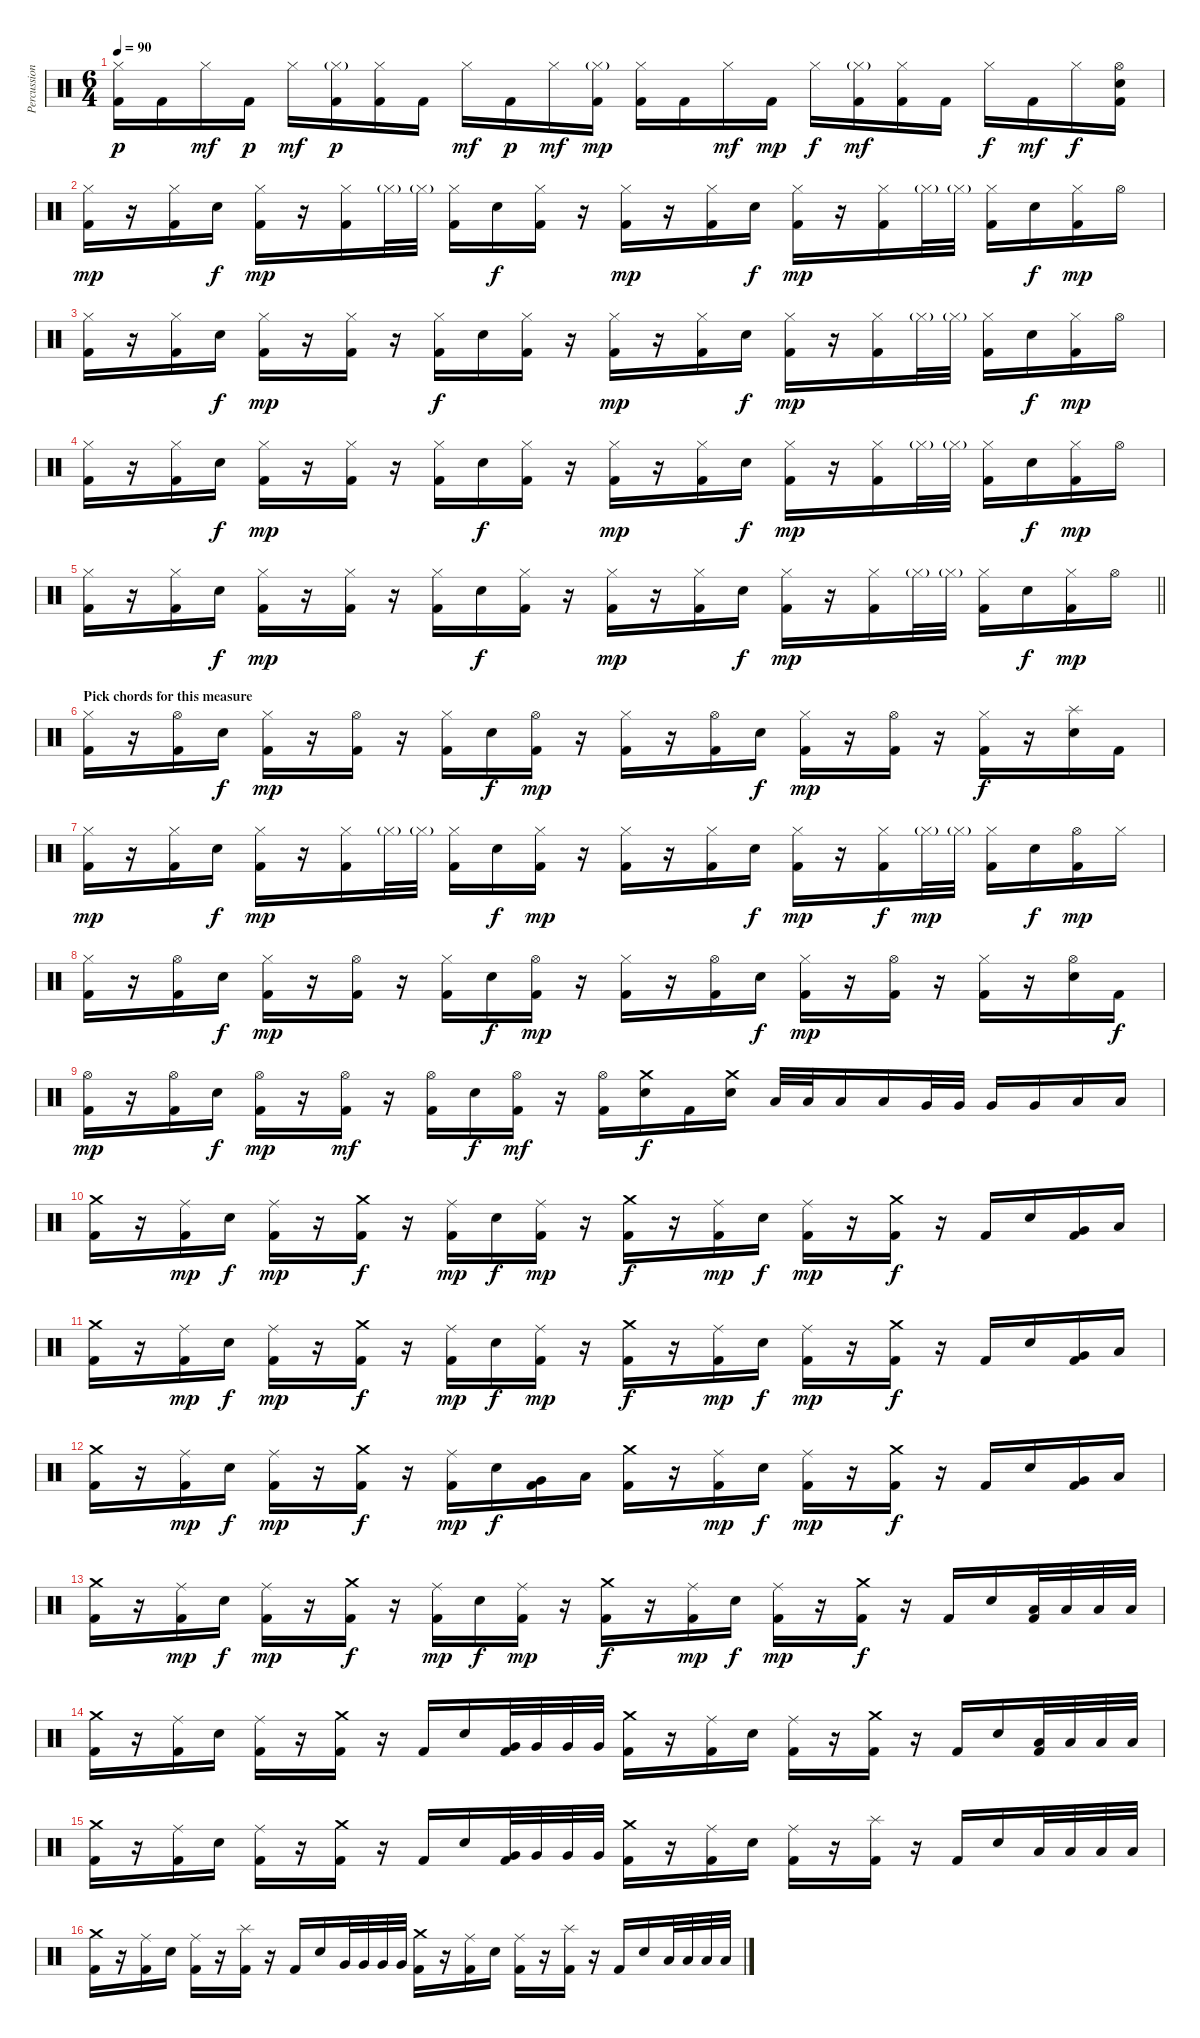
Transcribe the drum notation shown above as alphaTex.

\track ("Percussion" "Percussion") {instrument percussion}
\staff {score}
\articulation defaults
\ts (6 4)
\tempo 90
\clef neutral
\ks c
("Hi-Hat (closed)" "Kick (hit) 2").16{dy p} "Kick (hit) 2".16 "Hi-Hat (closed)".16{dy mf} "Kick (hit) 2".16{dy p} "Hi-Hat (closed)".16{dy mf} ("Hi-Hat (closed)"{g} "Kick (hit) 2").16{dy p} ("Hi-Hat (closed)" "Kick (hit) 2").16 "Kick (hit) 2".16 "Hi-Hat (closed)".16{dy mf} "Kick (hit) 2".16{dy p} "Hi-Hat (closed)".16{dy mf} ("Hi-Hat (closed)"{g} "Kick (hit) 2").16{dy mp} ("Hi-Hat (closed)" "Kick (hit) 2").16 "Kick (hit) 2".16 "Hi-Hat (closed)".16{dy mf} "Kick (hit) 2".16{dy mp} "Hi-Hat (closed)".16{dy f} ("Hi-Hat (closed)"{g} "Kick (hit) 2").16{dy mf} ("Hi-Hat (closed)" "Kick (hit) 2").16 "Kick (hit) 2".16 "Hi-Hat (closed)".16{dy f} "Kick (hit) 2".16{dy mf} "Hi-Hat (closed)".16{dy f} ("Hi-Hat (open)" "Electric Snare (hit)" "Kick (hit) 2").16 |
("Hi-Hat (closed)" "Kick (hit) 2").16{dy mp} r.16 ("Hi-Hat (closed)" "Kick (hit) 2").16 "Electric Snare (hit)".16{dy f} ("Hi-Hat (closed)" "Kick (hit) 2").16{dy mp} r.16 ("Hi-Hat (closed)" "Kick (hit) 2").16 "Hi-Hat (closed)"{g}.32 "Hi-Hat (closed)"{g}.32 ("Hi-Hat (closed)" "Kick (hit) 2").16 "Electric Snare (hit)".16{dy f} ("Hi-Hat (closed)" "Kick (hit) 2").16 r.16 ("Hi-Hat (closed)" "Kick (hit) 2").16{dy mp} r.16 ("Hi-Hat (closed)" "Kick (hit) 2").16 "Electric Snare (hit)".16{dy f} ("Hi-Hat (closed)" "Kick (hit) 2").16{dy mp} r.16 ("Hi-Hat (closed)" "Kick (hit) 2").16 "Hi-Hat (closed)"{g}.32 "Hi-Hat (closed)"{g}.32 ("Hi-Hat (closed)" "Kick (hit) 2").16 "Electric Snare (hit)".16{dy f} ("Hi-Hat (closed)" "Kick (hit) 2").16{dy mp} "Hi-Hat (open)".16 |
("Hi-Hat (closed)" "Kick (hit) 2").16 r.16 ("Hi-Hat (closed)" "Kick (hit) 2").16 "Electric Snare (hit)".16{dy f} ("Hi-Hat (closed)" "Kick (hit) 2").16{dy mp} r.16 ("Hi-Hat (closed)" "Kick (hit) 2").16 r.16 ("Hi-Hat (closed)" "Kick (hit) 2").16{dy f} "Electric Snare (hit)".16 ("Hi-Hat (closed)" "Kick (hit) 2").16 r.16 ("Hi-Hat (closed)" "Kick (hit) 2").16{dy mp} r.16 ("Hi-Hat (closed)" "Kick (hit) 2").16 "Electric Snare (hit)".16{dy f} ("Hi-Hat (closed)" "Kick (hit) 2").16{dy mp} r.16 ("Hi-Hat (closed)" "Kick (hit) 2").16 "Hi-Hat (closed)"{g}.32 "Hi-Hat (closed)"{g}.32 ("Hi-Hat (closed)" "Kick (hit) 2").16 "Electric Snare (hit)".16{dy f} ("Hi-Hat (closed)" "Kick (hit) 2").16{dy mp} "Hi-Hat (open)".16 |
("Hi-Hat (closed)" "Kick (hit) 2").16 r.16 ("Hi-Hat (closed)" "Kick (hit) 2").16 "Electric Snare (hit)".16{dy f} ("Hi-Hat (closed)" "Kick (hit) 2").16{dy mp} r.16 ("Hi-Hat (closed)" "Kick (hit) 2").16 r.16 ("Hi-Hat (closed)" "Kick (hit) 2").16 "Electric Snare (hit)".16{dy f} ("Hi-Hat (closed)" "Kick (hit) 2").16 r.16 ("Hi-Hat (closed)" "Kick (hit) 2").16{dy mp} r.16 ("Hi-Hat (closed)" "Kick (hit) 2").16 "Electric Snare (hit)".16{dy f} ("Hi-Hat (closed)" "Kick (hit) 2").16{dy mp} r.16 ("Hi-Hat (closed)" "Kick (hit) 2").16 "Hi-Hat (closed)"{g}.32 "Hi-Hat (closed)"{g}.32 ("Hi-Hat (closed)" "Kick (hit) 2").16 "Electric Snare (hit)".16{dy f} ("Hi-Hat (closed)" "Kick (hit) 2").16{dy mp} "Hi-Hat (open)".16 |
\barLineRight lightlight
("Hi-Hat (closed)" "Kick (hit) 2").16 r.16 ("Hi-Hat (closed)" "Kick (hit) 2").16 "Electric Snare (hit)".16{dy f} ("Hi-Hat (closed)" "Kick (hit) 2").16{dy mp} r.16 ("Hi-Hat (closed)" "Kick (hit) 2").16 r.16 ("Hi-Hat (closed)" "Kick (hit) 2").16 "Electric Snare (hit)".16{dy f} ("Hi-Hat (closed)" "Kick (hit) 2").16 r.16 ("Hi-Hat (closed)" "Kick (hit) 2").16{dy mp} r.16 ("Hi-Hat (closed)" "Kick (hit) 2").16 "Electric Snare (hit)".16{dy f} ("Hi-Hat (closed)" "Kick (hit) 2").16{dy mp} r.16 ("Hi-Hat (closed)" "Kick (hit) 2").16 "Hi-Hat (closed)"{g}.32 "Hi-Hat (closed)"{g}.32 ("Hi-Hat (closed)" "Kick (hit) 2").16 "Electric Snare (hit)".16{dy f} ("Hi-Hat (closed)" "Kick (hit) 2").16{dy mp} "Hi-Hat (open)".16 |
\section ("" "Pick chords for this measure")
("Hi-Hat (closed)" "Kick (hit) 2").16 r.16 ("Hi-Hat (open)" "Kick (hit) 2").16 "Electric Snare (hit)".16{dy f} ("Hi-Hat (closed)" "Kick (hit) 2").16{dy mp} r.16 ("Hi-Hat (open)" "Kick (hit) 2").16 r.16 ("Hi-Hat (closed)" "Kick (hit) 2").16 "Electric Snare (hit)".16{dy f} ("Hi-Hat (open)" "Kick (hit) 2").16{dy mp} r.16 ("Hi-Hat (closed)" "Kick (hit) 2").16 r.16 ("Hi-Hat (open)" "Kick (hit) 2").16 "Electric Snare (hit)".16{dy f} ("Hi-Hat (closed)" "Kick (hit) 2").16{dy mp} r.16 ("Hi-Hat (open)" "Kick (hit) 2").16 r.16 ("Hi-Hat (closed)" "Kick (hit) 2").16{dy f} r.16 ("Splash (hit)" "Electric Snare (hit)").16 "Kick (hit) 2".16 |
("Hi-Hat (closed)" "Kick (hit) 2").16{dy mp} r.16 ("Hi-Hat (closed)" "Kick (hit) 2").16 "Electric Snare (hit)".16{dy f} ("Hi-Hat (closed)" "Kick (hit) 2").16{dy mp} r.16 ("Hi-Hat (closed)" "Kick (hit) 2").16 "Hi-Hat (closed)"{g}.32 "Hi-Hat (closed)"{g}.32 ("Hi-Hat (closed)" "Kick (hit) 2").16 "Electric Snare (hit)".16{dy f} ("Hi-Hat (closed)" "Kick (hit) 2").16{dy mp} r.16 ("Hi-Hat (closed)" "Kick (hit) 2").16 r.16 ("Hi-Hat (closed)" "Kick (hit) 2").16 "Electric Snare (hit)".16{dy f} ("Hi-Hat (closed)" "Kick (hit) 2").16{dy mp} r.16 ("Hi-Hat (closed)" "Kick (hit) 2").16{dy f} "Hi-Hat (closed)"{g}.32{dy mp} "Hi-Hat (closed)"{g}.32 ("Hi-Hat (closed)" "Kick (hit) 2").16 "Electric Snare (hit)".16{dy f} ("Hi-Hat (open)" "Kick (hit) 2").16{dy mp} "Hi-Hat (closed)".16 |
("Hi-Hat (closed)" "Kick (hit) 2").16 r.16 ("Hi-Hat (open)" "Kick (hit) 2").16 "Electric Snare (hit)".16{dy f} ("Hi-Hat (closed)" "Kick (hit) 2").16{dy mp} r.16 ("Hi-Hat (open)" "Kick (hit) 2").16 r.16 ("Hi-Hat (closed)" "Kick (hit) 2").16 "Electric Snare (hit)".16{dy f} ("Hi-Hat (open)" "Kick (hit) 2").16{dy mp} r.16 ("Hi-Hat (closed)" "Kick (hit) 2").16 r.16 ("Hi-Hat (open)" "Kick (hit) 2").16 "Electric Snare (hit)".16{dy f} ("Hi-Hat (closed)" "Kick (hit) 2").16{dy mp} r.16 ("Hi-Hat (open)" "Kick (hit) 2").16 r.16 ("Hi-Hat (closed)" "Kick (hit) 2").16 r.16 ("Hi-Hat (open)" "Electric Snare (hit)").16 "Kick (hit) 2".16{dy f} |
("Hi-Hat (open)" "Kick (hit) 2").16{dy mp} r.16 ("Hi-Hat (open)" "Kick (hit) 2").16 "Electric Snare (hit)".16{dy f} ("Hi-Hat (open)" "Kick (hit) 2").16{dy mp} r.16 ("Hi-Hat (open)" "Kick (hit) 2").16{dy mf} r.16 ("Hi-Hat (open)" "Kick (hit) 2").16 "Electric Snare (hit)".16{dy f} ("Hi-Hat (open)" "Kick (hit) 2").16{dy mf} r.16 ("Hi-Hat (open)" "Kick (hit) 2").16 ("Crash medium (hit)" "Electric Snare (hit)").16{dy f} "Kick (hit) 2".16 ("Crash medium (hit)" "Electric Snare (hit)").16 "Low Tom (hit)".32 "Low Tom (hit)".32 "Low Tom (hit)".16 "Low Tom (hit)".16 "Very Low Tom (hit)".32 "Very Low Tom (hit)".32 "Very Low Tom (hit)".16 "Very Low Tom (hit)".16 "Low Floor Tom (hit)".16 "Low Floor Tom (hit)".16 |
("Crash medium (hit)" "Kick (hit) 2").16 r.16 ("Ride (middle)" "Kick (hit) 2").16{dy mp} "Electric Snare (hit)".16{dy f} ("Ride (middle)" "Kick (hit) 2").16{dy mp} r.16 ("Crash medium (hit)" "Kick (hit) 2").16{dy f} r.16 ("Ride (middle)" "Kick (hit) 2").16{dy mp} "Electric Snare (hit)".16{dy f} ("Ride (middle)" "Kick (hit) 2").16{dy mp} r.16 ("Crash medium (hit)" "Kick (hit) 2").16{dy f} r.16 ("Ride (middle)" "Kick (hit) 2").16{dy mp} "Electric Snare (hit)".16{dy f} ("Ride (middle)" "Kick (hit) 2").16{dy mp} r.16 ("Crash medium (hit)" "Kick (hit) 2").16{dy f} r.16 "Kick (hit) 2".16 "Electric Snare (hit)".16 ("Very Low Tom (hit)" "Kick (hit) 2").16 "Low Floor Tom (hit)".16 |
("Crash medium (hit)" "Kick (hit) 2").16 r.16 ("Ride (middle)" "Kick (hit) 2").16{dy mp} "Electric Snare (hit)".16{dy f} ("Ride (middle)" "Kick (hit) 2").16{dy mp} r.16 ("Crash medium (hit)" "Kick (hit) 2").16{dy f} r.16 ("Ride (middle)" "Kick (hit) 2").16{dy mp} "Electric Snare (hit)".16{dy f} ("Ride (middle)" "Kick (hit) 2").16{dy mp} r.16 ("Crash medium (hit)" "Kick (hit) 2").16{dy f} r.16 ("Ride (middle)" "Kick (hit) 2").16{dy mp} "Electric Snare (hit)".16{dy f} ("Ride (middle)" "Kick (hit) 2").16{dy mp} r.16 ("Crash medium (hit)" "Kick (hit) 2").16{dy f} r.16 "Kick (hit) 2".16 "Electric Snare (hit)".16 ("Very Low Tom (hit)" "Kick (hit) 2").16 "Low Floor Tom (hit)".16 |
("Crash medium (hit)" "Kick (hit) 2").16 r.16 ("Ride (middle)" "Kick (hit) 2").16{dy mp} "Electric Snare (hit)".16{dy f} ("Ride (middle)" "Kick (hit) 2").16{dy mp} r.16 ("Crash medium (hit)" "Kick (hit) 2").16{dy f} r.16 ("Ride (middle)" "Kick (hit) 2").16{dy mp} "Electric Snare (hit)".16{dy f} ("Very Low Tom (hit)" "Kick (hit) 2").16 "Low Floor Tom (hit)".16 ("Crash medium (hit)" "Kick (hit) 2").16 r.16 ("Ride (middle)" "Kick (hit) 2").16{dy mp} "Electric Snare (hit)".16{dy f} ("Ride (middle)" "Kick (hit) 2").16{dy mp} r.16 ("Crash medium (hit)" "Kick (hit) 2").16{dy f} r.16 "Kick (hit) 2".16 "Electric Snare (hit)".16 ("Very Low Tom (hit)" "Kick (hit) 2").16 "Low Floor Tom (hit)".16 |
("Crash medium (hit)" "Kick (hit) 2").16 r.16 ("Ride (middle)" "Kick (hit) 2").16{dy mp} "Electric Snare (hit)".16{dy f} ("Ride (middle)" "Kick (hit) 2").16{dy mp} r.16 ("Crash medium (hit)" "Kick (hit) 2").16{dy f} r.16 ("Ride (middle)" "Kick (hit) 2").16{dy mp} "Electric Snare (hit)".16{dy f} ("Ride (middle)" "Kick (hit) 2").16{dy mp} r.16 ("Crash medium (hit)" "Kick (hit) 2").16{dy f} r.16 ("Ride (middle)" "Kick (hit) 2").16{dy mp} "Electric Snare (hit)".16{dy f} ("Ride (middle)" "Kick (hit) 2").16{dy mp} r.16 ("Crash medium (hit)" "Kick (hit) 2").16{dy f} r.16 "Kick (hit) 2".16 "Electric Snare (hit)".16 ("Low Floor Tom (hit)" "Kick (hit) 2").32 "Low Floor Tom (hit)".32 "Low Floor Tom (hit)".32 "Low Floor Tom (hit)".32 |
("Crash medium (hit)" "Kick (hit) 2").16 r.16 ("Ride (middle)" "Kick (hit) 2").16 "Electric Snare (hit)".16 ("Ride (middle)" "Kick (hit) 2").16 r.16 ("Crash medium (hit)" "Kick (hit) 2").16 r.16 "Kick (hit) 2".16 "Electric Snare (hit)".16 ("Very Low Tom (hit)" "Kick (hit) 2").32 "Very Low Tom (hit)".32 "Very Low Tom (hit)".32 "Very Low Tom (hit)".32 ("Crash medium (hit)" "Kick (hit) 2").16 r.16 ("Ride (middle)" "Kick (hit) 2").16 "Electric Snare (hit)".16 ("Ride (middle)" "Kick (hit) 2").16 r.16 ("Crash medium (hit)" "Kick (hit) 2").16 r.16 "Kick (hit) 2".16 "Electric Snare (hit)".16 ("Low Floor Tom (hit)" "Kick (hit) 2").32 "Low Floor Tom (hit)".32 "Low Floor Tom (hit)".32 "Low Floor Tom (hit)".32 |
("Crash medium (hit)" "Kick (hit) 2").16 r.16 ("Ride (middle)" "Kick (hit) 2").16 "Electric Snare (hit)".16 ("Ride (middle)" "Kick (hit) 2").16 r.16 ("Crash medium (hit)" "Kick (hit) 2").16 r.16 "Kick (hit) 2".16 "Electric Snare (hit)".16 ("Very Low Tom (hit)" "Kick (hit) 2").32 "Very Low Tom (hit)".32 "Very Low Tom (hit)".32 "Very Low Tom (hit)".32 ("Crash medium (hit)" "Kick (hit) 2").16 r.16 ("Ride (middle)" "Kick (hit) 2").16 "Electric Snare (hit)".16 ("Ride (middle)" "Kick (hit) 2").16 r.16 ("Splash (hit)" "Kick (hit) 2").16 r.16 "Kick (hit) 2".16 "Electric Snare (hit)".16 "Low Floor Tom (hit)".32 "Low Floor Tom (hit)".32 "Low Floor Tom (hit)".32 "Low Floor Tom (hit)".32 |
("Crash medium (hit)" "Kick (hit) 2").16 r.16 ("Ride (middle)" "Kick (hit) 2").16 "Electric Snare (hit)".16 ("Ride (middle)" "Kick (hit) 2").16 r.16 ("Splash (hit)" "Kick (hit) 2").16 r.16 "Kick (hit) 2".16 "Electric Snare (hit)".16 "Very Low Tom (hit)".32 "Very Low Tom (hit)".32 "Very Low Tom (hit)".32 "Very Low Tom (hit)".32 ("Crash medium (hit)" "Kick (hit) 2").16 r.16 ("Ride (middle)" "Kick (hit) 2").16 "Electric Snare (hit)".16 ("Ride (middle)" "Kick (hit) 2").16 r.16 ("Splash (hit)" "Kick (hit) 2").16 r.16 "Kick (hit) 2".16 "Electric Snare (hit)".16 "Low Floor Tom (hit)".32 "Low Floor Tom (hit)".32 "Low Floor Tom (hit)".32 "Low Floor Tom (hit)".32
